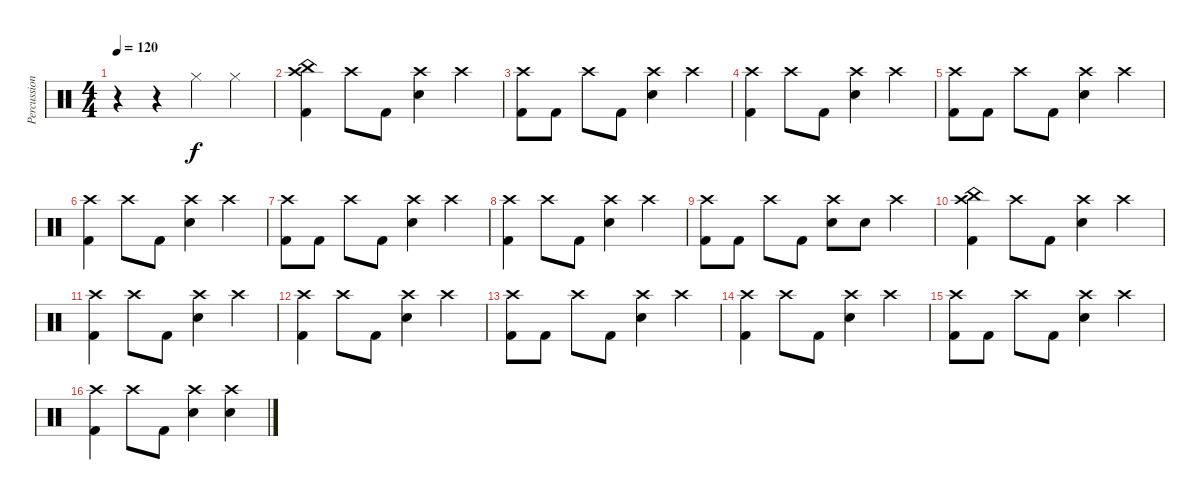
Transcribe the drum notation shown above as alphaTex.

\track ("Percussion" "Percussion") {instrument percussion}
\staff {score}
\articulation defaults
\ts (4 4)
\tempo 120
\clef neutral
\ks c
r.4{dy f} r.4 "Hi-Hat (closed)".4 "Hi-Hat (closed)".4 |
("Kick (hit) 2" "Crash high (hit)" "China (hit)").4 "Crash high (hit)".8 "Kick (hit) 2".8 ("Electric Snare (hit)" "Crash high (hit)").4 "Crash high (hit)".4 |
("Kick (hit) 2" "Crash high (hit)").8 "Kick (hit) 2".8 "Crash high (hit)".8 "Kick (hit) 2".8 ("Electric Snare (hit)" "Crash high (hit)").4 "Crash high (hit)".4 |
("Kick (hit) 2" "Crash high (hit)").4 "Crash high (hit)".8 "Kick (hit) 2".8 ("Electric Snare (hit)" "Crash high (hit)").4 "Crash high (hit)".4 |
("Kick (hit) 2" "Crash high (hit)").8 "Kick (hit) 2".8 "Crash high (hit)".8 "Kick (hit) 2".8 ("Electric Snare (hit)" "Crash high (hit)").4 "Crash high (hit)".4 |
("Kick (hit) 2" "Crash high (hit)").4 "Crash high (hit)".8 "Kick (hit) 2".8 ("Electric Snare (hit)" "Crash high (hit)").4 "Crash high (hit)".4 |
("Kick (hit) 2" "Crash high (hit)").8 "Kick (hit) 2".8 "Crash high (hit)".8 "Kick (hit) 2".8 ("Electric Snare (hit)" "Crash high (hit)").4 "Crash high (hit)".4 |
("Kick (hit) 2" "Crash high (hit)").4 "Crash high (hit)".8 "Kick (hit) 2".8 ("Electric Snare (hit)" "Crash high (hit)").4 "Crash high (hit)".4 |
("Kick (hit) 2" "Crash high (hit)").8 "Kick (hit) 2".8 "Crash high (hit)".8 "Kick (hit) 2".8 ("Electric Snare (hit)" "Crash high (hit)").8 "Electric Snare (hit)".8 "Crash high (hit)".4 |
("Kick (hit) 2" "Crash high (hit)" "China (hit)").4 "Crash high (hit)".8 "Kick (hit) 2".8 ("Electric Snare (hit)" "Crash high (hit)").4 "Crash high (hit)".4 |
("Kick (hit) 2" "Crash high (hit)").4 "Crash high (hit)".8 "Kick (hit) 2".8 ("Electric Snare (hit)" "Crash high (hit)").4 "Crash high (hit)".4 |
("Kick (hit) 2" "Crash high (hit)").4 "Crash high (hit)".8 "Kick (hit) 2".8 ("Electric Snare (hit)" "Crash high (hit)").4 "Crash high (hit)".4 |
("Kick (hit) 2" "Crash high (hit)").8 "Kick (hit) 2".8 "Crash high (hit)".8 "Kick (hit) 2".8 ("Electric Snare (hit)" "Crash high (hit)").4 "Crash high (hit)".4 |
("Kick (hit) 2" "Crash high (hit)").4 "Crash high (hit)".8 "Kick (hit) 2".8 ("Electric Snare (hit)" "Crash high (hit)").4 "Crash high (hit)".4 |
("Kick (hit) 2" "Crash high (hit)").8 "Kick (hit) 2".8 "Crash high (hit)".8 "Kick (hit) 2".8 ("Electric Snare (hit)" "Crash high (hit)").4 "Crash high (hit)".4 |
("Kick (hit) 2" "Crash high (hit)").4 "Crash high (hit)".8 "Kick (hit) 2".8 ("Electric Snare (hit)" "Crash high (hit)").4 ("Crash high (hit)" "Electric Snare (hit)").4
